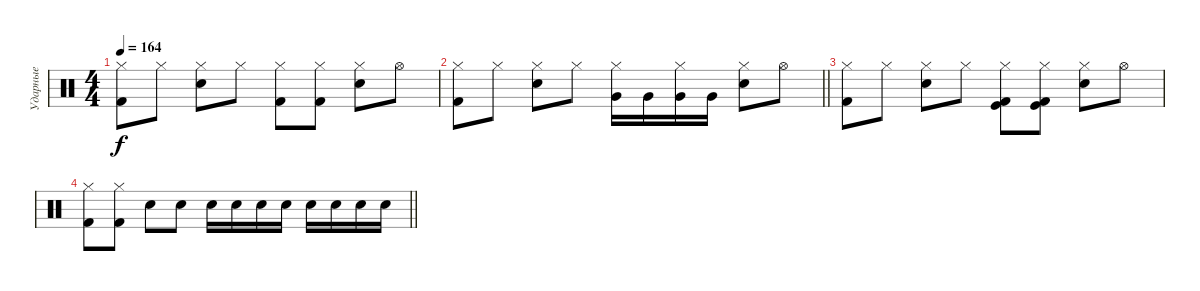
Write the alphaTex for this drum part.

\track ("Ударные" "Ударные") {instrument percussion}
\staff {score}
\articulation defaults
\ts (4 4)
\tempo 164
\clef neutral
\ks c
("Hi-Hat (closed)" "Kick (hit) 2").8{dy f} "Hi-Hat (closed)".8 ("Hi-Hat (closed)" "Snare (hit) 2").8 "Hi-Hat (closed)".8 ("Hi-Hat (closed)" "Kick (hit) 2").8 ("Hi-Hat (closed)" "Kick (hit) 2").8 ("Hi-Hat (closed)" "Snare (hit) 2").8 "Hi-Hat (open)".8 |
\barLineRight lightlight
("Hi-Hat (closed)" "Kick (hit) 2").8 "Hi-Hat (closed)".8 ("Hi-Hat (closed)" "Snare (hit) 2").8 "Hi-Hat (closed)".8 ("Hi-Hat (closed)" "Very Low Tom (hit)").16 "Very Low Tom (hit)".16 ("Hi-Hat (closed)" "Very Low Tom (hit)").16 "Very Low Tom (hit)".16 ("Hi-Hat (closed)" "Snare (hit) 2").8 "Hi-Hat (open)".8 |
("Hi-Hat (closed)" "Kick (hit) 2").8 "Hi-Hat (closed)".8 ("Hi-Hat (closed)" "Snare (hit) 2").8 "Hi-Hat (closed)".8 ("Hi-Hat (closed)" "Kick (hit)" "Kick (hit) 2").8 ("Hi-Hat (closed)" "Kick (hit)" "Kick (hit) 2").8 ("Hi-Hat (closed)" "Snare (hit) 2").8 "Hi-Hat (open)".8 |
\barLineRight lightlight
("Hi-Hat (closed)" "Kick (hit) 2").8 ("Hi-Hat (closed)" "Kick (hit) 2").8 "Snare (hit) 2".8 "Snare (hit) 2".8 "Snare (hit) 2".16 "Snare (hit) 2".16 "Snare (hit) 2".16 "Snare (hit) 2".16 "Snare (hit) 2".16 "Snare (hit) 2".16 "Snare (hit) 2".16 "Snare (hit) 2".16
